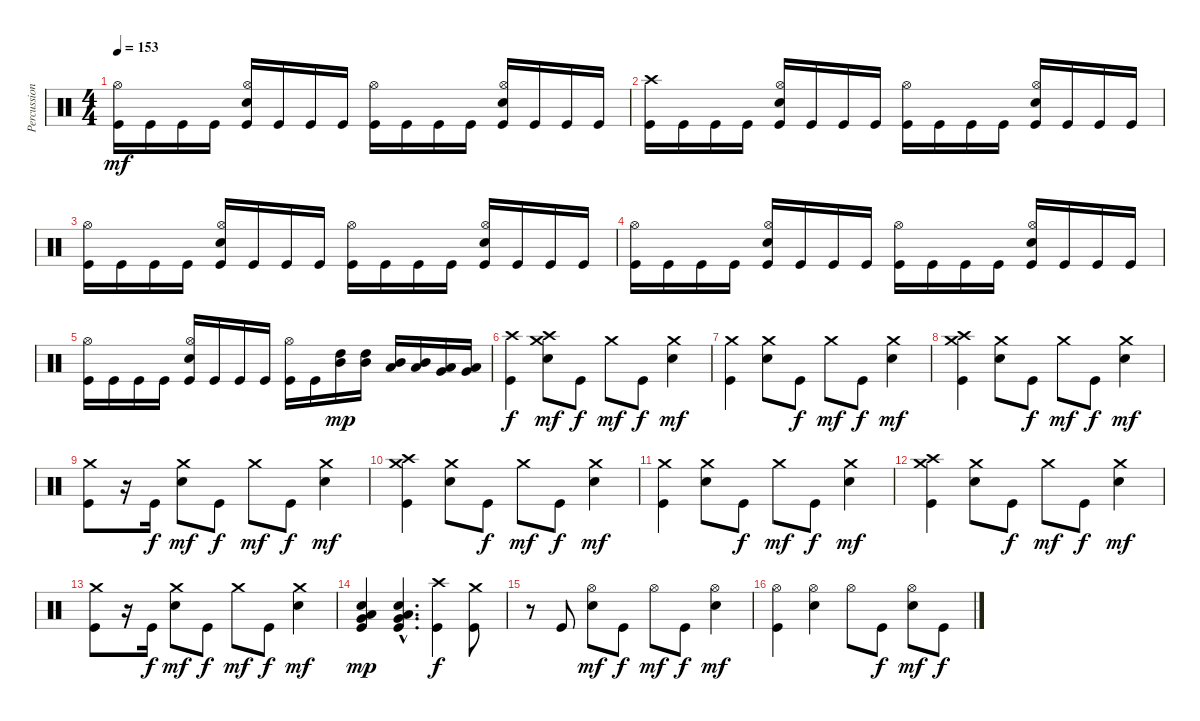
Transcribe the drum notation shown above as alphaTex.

\track ("Percussions" "Percussion") {instrument percussion}
\staff {score}
\articulation defaults
\ts (4 4)
\tempo 153
\clef neutral
\ks c
("Kick (hit)" "Hi-Hat (open)").16{dy mf} "Kick (hit)".16 "Kick (hit)".16 "Kick (hit)".16 ("Kick (hit)" "Electric Snare (hit)" "Hi-Hat (open)").16 "Kick (hit)".16 "Kick (hit)".16 "Kick (hit)".16 ("Kick (hit)" "Hi-Hat (open)").16 "Kick (hit)".16 "Kick (hit)".16 "Kick (hit)".16 ("Kick (hit)" "Electric Snare (hit)" "Hi-Hat (open)").16 "Kick (hit)".16 "Kick (hit)".16 "Kick (hit)".16 |
("Kick (hit)" "Crash high (hit)").16 "Kick (hit)".16 "Kick (hit)".16 "Kick (hit)".16 ("Kick (hit)" "Electric Snare (hit)" "Hi-Hat (open)").16 "Kick (hit)".16 "Kick (hit)".16 "Kick (hit)".16 ("Kick (hit)" "Hi-Hat (open)").16 "Kick (hit)".16 "Kick (hit)".16 "Kick (hit)".16 ("Kick (hit)" "Electric Snare (hit)" "Hi-Hat (open)").16 "Kick (hit)".16 "Kick (hit)".16 "Kick (hit)".16 |
("Kick (hit)" "Hi-Hat (open)").16 "Kick (hit)".16 "Kick (hit)".16 "Kick (hit)".16 ("Kick (hit)" "Electric Snare (hit)" "Hi-Hat (open)").16 "Kick (hit)".16 "Kick (hit)".16 "Kick (hit)".16 ("Kick (hit)" "Hi-Hat (open)").16 "Kick (hit)".16 "Kick (hit)".16 "Kick (hit)".16 ("Kick (hit)" "Electric Snare (hit)" "Hi-Hat (open)").16 "Kick (hit)".16 "Kick (hit)".16 "Kick (hit)".16 |
("Kick (hit)" "Hi-Hat (open)").16 "Kick (hit)".16 "Kick (hit)".16 "Kick (hit)".16 ("Kick (hit)" "Electric Snare (hit)" "Hi-Hat (open)").16 "Kick (hit)".16 "Kick (hit)".16 "Kick (hit)".16 ("Kick (hit)" "Hi-Hat (open)").16 "Kick (hit)".16 "Kick (hit)".16 "Kick (hit)".16 ("Kick (hit)" "Electric Snare (hit)" "Hi-Hat (open)").16 "Kick (hit)".16 "Kick (hit)".16 "Kick (hit)".16 |
("Kick (hit)" "Hi-Hat (open)").16 "Kick (hit)".16 "Kick (hit)".16 "Kick (hit)".16 ("Kick (hit)" "Electric Snare (hit)" "Hi-Hat (open)").16 "Kick (hit)".16 "Kick (hit)".16 "Kick (hit)".16 ("Kick (hit)" "Hi-Hat (open)").16 "Kick (hit)".16 ("High Tom (hit)" "Mid Tom (hit)").16{dy mp} ("High Tom (hit)" "Mid Tom (hit)").16 ("Mid Tom (hit)" "Low Tom (hit)").16 ("Mid Tom (hit)" "Low Tom (hit)").16 ("Low Tom (hit)" "Very Low Tom (hit)").16 ("Low Tom (hit)" "Very Low Tom (hit)").16 |
("Kick (hit)" "Crash high (hit)").4{dy f} ("Electric Snare (hit)" "Crash medium (hit)" "Crash high (hit)").8{dy mf} "Kick (hit)".8{dy f} "Crash medium (hit)".8{dy mf} "Kick (hit)".8{dy f} ("Electric Snare (hit)" "Crash medium (hit)").4{dy mf} |
("Kick (hit)" "Crash medium (hit)").4 ("Electric Snare (hit)" "Crash medium (hit)").8 "Kick (hit)".8{dy f} "Crash medium (hit)".8{dy mf} "Kick (hit)".8{dy f} ("Electric Snare (hit)" "Crash medium (hit)").4{dy mf} |
("Kick (hit)" "Crash medium (hit)" "Crash high (hit)").4 ("Electric Snare (hit)" "Crash medium (hit)").8 "Kick (hit)".8{dy f} "Crash medium (hit)".8{dy mf} "Kick (hit)".8{dy f} ("Electric Snare (hit)" "Crash medium (hit)").4{dy mf} |
("Kick (hit)" "Crash medium (hit)").8 r.16 "Kick (hit)".16{dy f} ("Electric Snare (hit)" "Crash medium (hit)").8{dy mf} "Kick (hit)".8{dy f} "Crash medium (hit)".8{dy mf} "Kick (hit)".8{dy f} ("Electric Snare (hit)" "Crash medium (hit)").4{dy mf} |
("Kick (hit)" "Crash medium (hit)" "Crash high (hit)").4 ("Electric Snare (hit)" "Crash medium (hit)").8 "Kick (hit)".8{dy f} "Crash medium (hit)".8{dy mf} "Kick (hit)".8{dy f} ("Electric Snare (hit)" "Crash medium (hit)").4{dy mf} |
("Kick (hit)" "Crash medium (hit)").4 ("Electric Snare (hit)" "Crash medium (hit)").8 "Kick (hit)".8{dy f} "Crash medium (hit)".8{dy mf} "Kick (hit)".8{dy f} ("Electric Snare (hit)" "Crash medium (hit)").4{dy mf} |
("Kick (hit)" "Crash medium (hit)" "Crash high (hit)").4 ("Electric Snare (hit)" "Crash medium (hit)").8 "Kick (hit)".8{dy f} "Crash medium (hit)".8{dy mf} "Kick (hit)".8{dy f} ("Electric Snare (hit)" "Crash medium (hit)").4{dy mf} |
("Kick (hit)" "Crash medium (hit)").8 r.16 "Kick (hit)".16{dy f} ("Electric Snare (hit)" "Crash medium (hit)").8{dy mf} "Kick (hit)".8{dy f} "Crash medium (hit)".8{dy mf} "Kick (hit)".8{dy f} ("Electric Snare (hit)" "Crash medium (hit)").4{dy mf} |
("Kick (hit)" "Electric Snare (hit)" "Low Floor Tom (hit)" "Very Low Tom (hit)").4{dy mp} ("Kick (hit)"{hac} "Electric Snare (hit)"{hac} "Low Floor Tom (hit)"{hac} "Very Low Tom (hit)"{hac}).4{d} ("Kick (hit)" "Crash high (hit)").4{dy f} ("Kick (hit)" "Crash medium (hit)").8 |
r.8 "Kick (hit)".8 ("Electric Snare (hit)" "Hi-Hat (open)").8{dy mf} "Kick (hit)".8{dy f} "Hi-Hat (open)".8{dy mf} "Kick (hit)".8{dy f} ("Electric Snare (hit)" "Hi-Hat (open)").4{dy mf} |
("Kick (hit)" "Hi-Hat (open)").4 ("Electric Snare (hit)" "Hi-Hat (open)").4 "Hi-Hat (open)".8 "Kick (hit)".8{dy f} ("Electric Snare (hit)" "Hi-Hat (open)").8{dy mf} "Kick (hit)".8{dy f}
